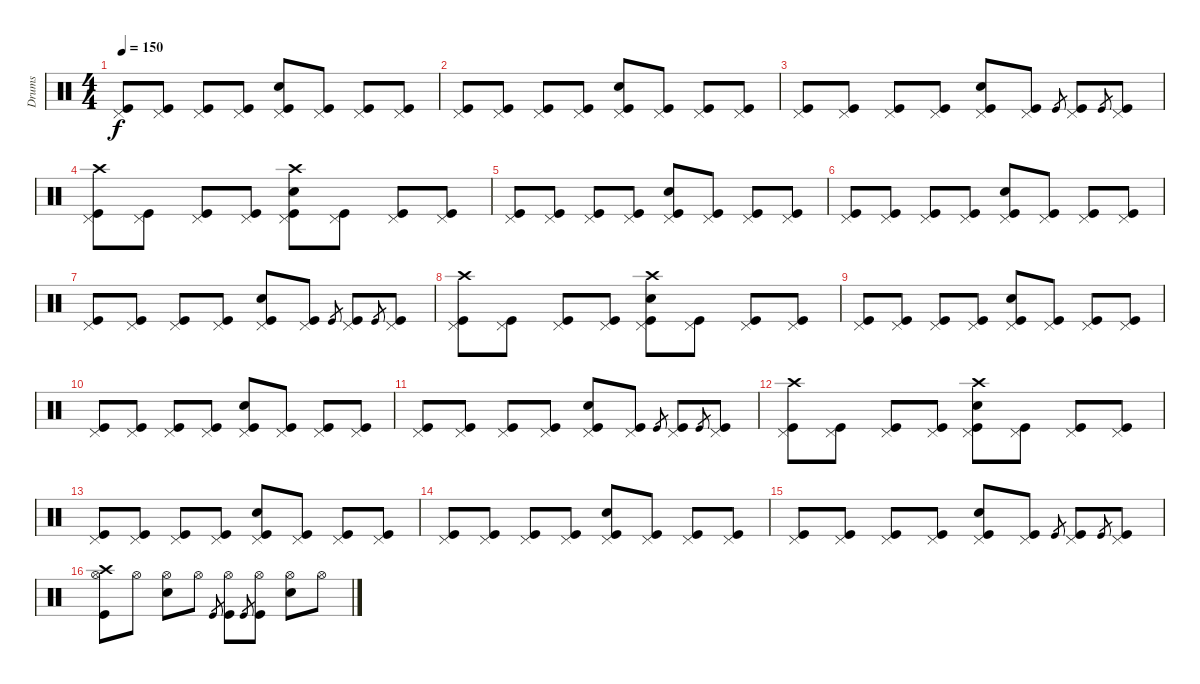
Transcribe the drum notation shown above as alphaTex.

\track ("Drums" "Drums") {instrument percussion}
\staff {score}
\articulation defaults
\ts (4 4)
\tempo 150
\clef neutral
\ks c
("Pedal Hi-Hat (hit)" "Kick (hit)").8{dy f} ("Pedal Hi-Hat (hit)" "Kick (hit)").8 ("Pedal Hi-Hat (hit)" "Kick (hit)").8 ("Pedal Hi-Hat (hit)" "Kick (hit)").8 ("Pedal Hi-Hat (hit)" "Snare (hit) 2" "Kick (hit)").8 ("Pedal Hi-Hat (hit)" "Kick (hit)").8 ("Pedal Hi-Hat (hit)" "Kick (hit)").8 ("Pedal Hi-Hat (hit)" "Kick (hit)").8 |
("Pedal Hi-Hat (hit)" "Kick (hit)").8 ("Pedal Hi-Hat (hit)" "Kick (hit)").8 ("Pedal Hi-Hat (hit)" "Kick (hit)").8 ("Pedal Hi-Hat (hit)" "Kick (hit)").8 ("Pedal Hi-Hat (hit)" "Snare (hit) 2" "Kick (hit)").8 ("Pedal Hi-Hat (hit)" "Kick (hit)").8 ("Pedal Hi-Hat (hit)" "Kick (hit)").8 ("Pedal Hi-Hat (hit)" "Kick (hit)").8 |
("Pedal Hi-Hat (hit)" "Kick (hit)").8 ("Pedal Hi-Hat (hit)" "Kick (hit)").8 ("Pedal Hi-Hat (hit)" "Kick (hit)").8 ("Pedal Hi-Hat (hit)" "Kick (hit)").8 ("Pedal Hi-Hat (hit)" "Snare (hit) 2" "Kick (hit)").8 ("Pedal Hi-Hat (hit)" "Kick (hit)").8 "Kick (hit)".8{gr} ("Pedal Hi-Hat (hit)" "Kick (hit)").8 "Kick (hit)".8{gr} ("Pedal Hi-Hat (hit)" "Kick (hit)").8 |
("Crash high (hit)" "Pedal Hi-Hat (hit)" "Kick (hit)").8 ("Pedal Hi-Hat (hit)" "Kick (hit)").8 ("Pedal Hi-Hat (hit)" "Kick (hit)").8 ("Pedal Hi-Hat (hit)" "Kick (hit)").8 ("Crash high (hit)" "Pedal Hi-Hat (hit)" "Snare (hit) 2" "Kick (hit)").8 ("Pedal Hi-Hat (hit)" "Kick (hit)").8 ("Pedal Hi-Hat (hit)" "Kick (hit)").8 ("Pedal Hi-Hat (hit)" "Kick (hit)").8 |
("Pedal Hi-Hat (hit)" "Kick (hit)").8 ("Pedal Hi-Hat (hit)" "Kick (hit)").8 ("Pedal Hi-Hat (hit)" "Kick (hit)").8 ("Pedal Hi-Hat (hit)" "Kick (hit)").8 ("Pedal Hi-Hat (hit)" "Snare (hit) 2" "Kick (hit)").8 ("Pedal Hi-Hat (hit)" "Kick (hit)").8 ("Pedal Hi-Hat (hit)" "Kick (hit)").8 ("Pedal Hi-Hat (hit)" "Kick (hit)").8 |
("Pedal Hi-Hat (hit)" "Kick (hit)").8 ("Pedal Hi-Hat (hit)" "Kick (hit)").8 ("Pedal Hi-Hat (hit)" "Kick (hit)").8 ("Pedal Hi-Hat (hit)" "Kick (hit)").8 ("Pedal Hi-Hat (hit)" "Snare (hit) 2" "Kick (hit)").8 ("Pedal Hi-Hat (hit)" "Kick (hit)").8 ("Pedal Hi-Hat (hit)" "Kick (hit)").8 ("Pedal Hi-Hat (hit)" "Kick (hit)").8 |
("Pedal Hi-Hat (hit)" "Kick (hit)").8 ("Pedal Hi-Hat (hit)" "Kick (hit)").8 ("Pedal Hi-Hat (hit)" "Kick (hit)").8 ("Pedal Hi-Hat (hit)" "Kick (hit)").8 ("Pedal Hi-Hat (hit)" "Snare (hit) 2" "Kick (hit)").8 ("Pedal Hi-Hat (hit)" "Kick (hit)").8 "Kick (hit)".8{gr} ("Pedal Hi-Hat (hit)" "Kick (hit)").8 "Kick (hit)".8{gr} ("Pedal Hi-Hat (hit)" "Kick (hit)").8 |
("Crash high (hit)" "Pedal Hi-Hat (hit)" "Kick (hit)").8 ("Pedal Hi-Hat (hit)" "Kick (hit)").8 ("Pedal Hi-Hat (hit)" "Kick (hit)").8 ("Pedal Hi-Hat (hit)" "Kick (hit)").8 ("Crash high (hit)" "Pedal Hi-Hat (hit)" "Snare (hit) 2" "Kick (hit)").8 ("Pedal Hi-Hat (hit)" "Kick (hit)").8 ("Pedal Hi-Hat (hit)" "Kick (hit)").8 ("Pedal Hi-Hat (hit)" "Kick (hit)").8 |
("Pedal Hi-Hat (hit)" "Kick (hit)").8 ("Pedal Hi-Hat (hit)" "Kick (hit)").8 ("Pedal Hi-Hat (hit)" "Kick (hit)").8 ("Pedal Hi-Hat (hit)" "Kick (hit)").8 ("Pedal Hi-Hat (hit)" "Snare (hit) 2" "Kick (hit)").8 ("Pedal Hi-Hat (hit)" "Kick (hit)").8 ("Pedal Hi-Hat (hit)" "Kick (hit)").8 ("Pedal Hi-Hat (hit)" "Kick (hit)").8 |
("Pedal Hi-Hat (hit)" "Kick (hit)").8 ("Pedal Hi-Hat (hit)" "Kick (hit)").8 ("Pedal Hi-Hat (hit)" "Kick (hit)").8 ("Pedal Hi-Hat (hit)" "Kick (hit)").8 ("Pedal Hi-Hat (hit)" "Snare (hit) 2" "Kick (hit)").8 ("Pedal Hi-Hat (hit)" "Kick (hit)").8 ("Pedal Hi-Hat (hit)" "Kick (hit)").8 ("Pedal Hi-Hat (hit)" "Kick (hit)").8 |
("Pedal Hi-Hat (hit)" "Kick (hit)").8 ("Pedal Hi-Hat (hit)" "Kick (hit)").8 ("Pedal Hi-Hat (hit)" "Kick (hit)").8 ("Pedal Hi-Hat (hit)" "Kick (hit)").8 ("Pedal Hi-Hat (hit)" "Snare (hit) 2" "Kick (hit)").8 ("Pedal Hi-Hat (hit)" "Kick (hit)").8 "Kick (hit)".8{gr} ("Pedal Hi-Hat (hit)" "Kick (hit)").8 "Kick (hit)".8{gr} ("Pedal Hi-Hat (hit)" "Kick (hit)").8 |
("Crash high (hit)" "Pedal Hi-Hat (hit)" "Kick (hit)").8 ("Pedal Hi-Hat (hit)" "Kick (hit)").8 ("Pedal Hi-Hat (hit)" "Kick (hit)").8 ("Pedal Hi-Hat (hit)" "Kick (hit)").8 ("Crash high (hit)" "Pedal Hi-Hat (hit)" "Snare (hit) 2" "Kick (hit)").8 ("Pedal Hi-Hat (hit)" "Kick (hit)").8 ("Pedal Hi-Hat (hit)" "Kick (hit)").8 ("Pedal Hi-Hat (hit)" "Kick (hit)").8 |
("Pedal Hi-Hat (hit)" "Kick (hit)").8 ("Pedal Hi-Hat (hit)" "Kick (hit)").8 ("Pedal Hi-Hat (hit)" "Kick (hit)").8 ("Pedal Hi-Hat (hit)" "Kick (hit)").8 ("Pedal Hi-Hat (hit)" "Snare (hit) 2" "Kick (hit)").8 ("Pedal Hi-Hat (hit)" "Kick (hit)").8 ("Pedal Hi-Hat (hit)" "Kick (hit)").8 ("Pedal Hi-Hat (hit)" "Kick (hit)").8 |
("Pedal Hi-Hat (hit)" "Kick (hit)").8 ("Pedal Hi-Hat (hit)" "Kick (hit)").8 ("Pedal Hi-Hat (hit)" "Kick (hit)").8 ("Pedal Hi-Hat (hit)" "Kick (hit)").8 ("Pedal Hi-Hat (hit)" "Snare (hit) 2" "Kick (hit)").8 ("Pedal Hi-Hat (hit)" "Kick (hit)").8 ("Pedal Hi-Hat (hit)" "Kick (hit)").8 ("Pedal Hi-Hat (hit)" "Kick (hit)").8 |
("Pedal Hi-Hat (hit)" "Kick (hit)").8 ("Pedal Hi-Hat (hit)" "Kick (hit)").8 ("Pedal Hi-Hat (hit)" "Kick (hit)").8 ("Pedal Hi-Hat (hit)" "Kick (hit)").8 ("Pedal Hi-Hat (hit)" "Snare (hit) 2" "Kick (hit)").8 ("Pedal Hi-Hat (hit)" "Kick (hit)").8 "Kick (hit)".8{gr} ("Pedal Hi-Hat (hit)" "Kick (hit)").8 "Kick (hit)".8{gr} ("Pedal Hi-Hat (hit)" "Kick (hit)").8 |
("Crash high (hit)" "Hi-Hat (open)" "Kick (hit)").8 "Hi-Hat (open)".8 ("Hi-Hat (open)" "Snare (hit) 2").8 "Hi-Hat (open)".8 "Kick (hit)".8{gr} ("Hi-Hat (open)" "Kick (hit)").8 "Kick (hit)".8{gr} ("Hi-Hat (open)" "Kick (hit)").8 ("Hi-Hat (open)" "Snare (hit) 2").8 "Hi-Hat (open)".8
